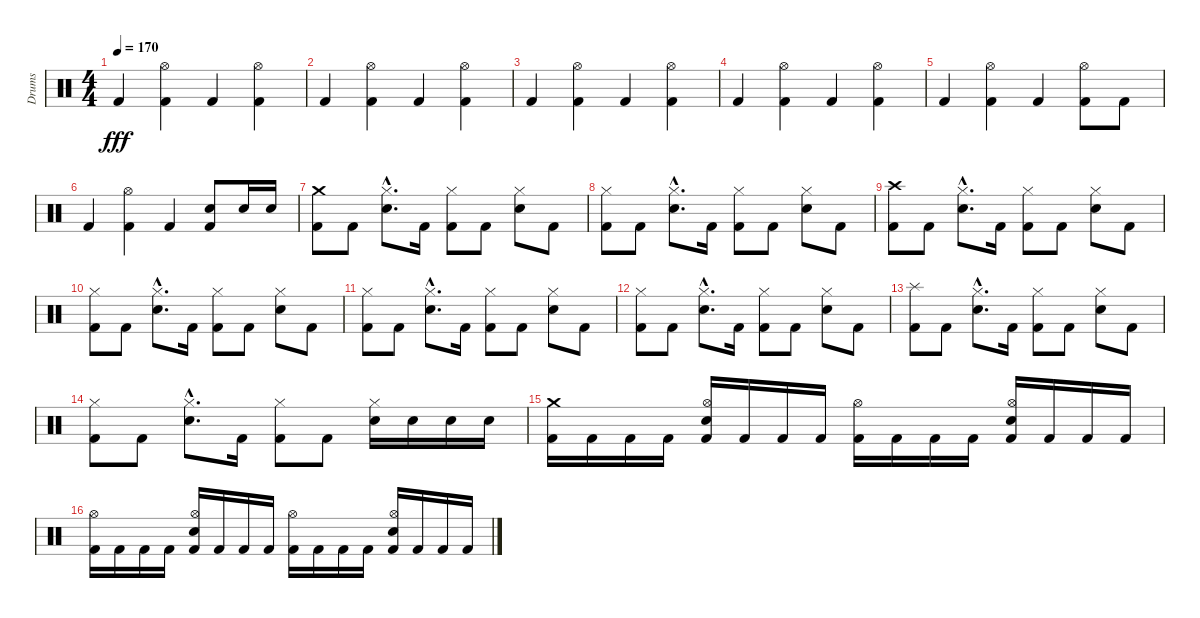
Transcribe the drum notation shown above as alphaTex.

\track ("Drums" "Drums") {instrument percussion}
\staff {score}
\articulation defaults
\ts (4 4)
\tempo 170
\clef neutral
\ks c "Kick (hit) 2".4{dy fff}
("Hi-Hat (open)" "Kick (hit) 2").4 "Kick (hit) 2".4 ("Hi-Hat (open)" "Kick (hit) 2").4 |
"Kick (hit) 2".4 ("Hi-Hat (open)" "Kick (hit) 2").4 "Kick (hit) 2".4 ("Hi-Hat (open)" "Kick (hit) 2").4 |
"Kick (hit) 2".4 ("Hi-Hat (open)" "Kick (hit) 2").4 "Kick (hit) 2".4 ("Hi-Hat (open)" "Kick (hit) 2").4 |
"Kick (hit) 2".4 ("Hi-Hat (open)" "Kick (hit) 2").4 "Kick (hit) 2".4 ("Hi-Hat (open)" "Kick (hit) 2").4 |
"Kick (hit) 2".4 ("Hi-Hat (open)" "Kick (hit) 2").4 "Kick (hit) 2".4 ("Hi-Hat (open)" "Kick (hit) 2").8 "Kick (hit) 2".8 |
"Kick (hit) 2".4 ("Hi-Hat (open)" "Kick (hit) 2").4 "Kick (hit) 2".4 ("Snare (hit) 2" "Kick (hit) 2").8 "Snare (hit) 2".16 "Snare (hit) 2".16 |
("Crash medium (hit)" "Kick (hit) 2").8 "Kick (hit) 2".8 ("Hi-Hat (closed)"{hac} "Snare (hit) 2"{hac}).8{d} "Kick (hit) 2".16 ("Hi-Hat (closed)" "Kick (hit) 2").8 "Kick (hit) 2".8 ("Hi-Hat (closed)" "Snare (hit) 2").8 "Kick (hit) 2".8 |
("Hi-Hat (closed)" "Kick (hit) 2").8 "Kick (hit) 2".8 ("Hi-Hat (closed)"{hac} "Snare (hit) 2"{hac}).8{d} "Kick (hit) 2".16 ("Hi-Hat (closed)" "Kick (hit) 2").8 "Kick (hit) 2".8 ("Hi-Hat (closed)" "Snare (hit) 2").8 "Kick (hit) 2".8 |
("Crash high (hit)" "Kick (hit) 2").8 "Kick (hit) 2".8 ("Hi-Hat (closed)"{hac} "Snare (hit) 2"{hac}).8{d} "Kick (hit) 2".16 ("Hi-Hat (closed)" "Kick (hit) 2").8 "Kick (hit) 2".8 ("Hi-Hat (closed)" "Snare (hit) 2").8 "Kick (hit) 2".8 |
("Hi-Hat (closed)" "Kick (hit) 2").8 "Kick (hit) 2".8 ("Hi-Hat (closed)"{hac} "Snare (hit) 2"{hac}).8{d} "Kick (hit) 2".16 ("Hi-Hat (closed)" "Kick (hit) 2").8 "Kick (hit) 2".8 ("Hi-Hat (closed)" "Snare (hit) 2").8 "Kick (hit) 2".8 |
("Hi-Hat (closed)" "Kick (hit) 2").8 "Kick (hit) 2".8 ("Hi-Hat (closed)"{hac} "Snare (hit) 2"{hac}).8{d} "Kick (hit) 2".16 ("Hi-Hat (closed)" "Kick (hit) 2").8 "Kick (hit) 2".8 ("Hi-Hat (closed)" "Snare (hit) 2").8 "Kick (hit) 2".8 |
("Hi-Hat (closed)" "Kick (hit) 2").8 "Kick (hit) 2".8 ("Hi-Hat (closed)"{hac} "Snare (hit) 2"{hac}).8{d} "Kick (hit) 2".16 ("Hi-Hat (closed)" "Kick (hit) 2").8 "Kick (hit) 2".8 ("Hi-Hat (closed)" "Snare (hit) 2").8 "Kick (hit) 2".8 |
("Splash (hit)" "Kick (hit) 2").8 "Kick (hit) 2".8 ("Hi-Hat (closed)"{hac} "Snare (hit) 2"{hac}).8{d} "Kick (hit) 2".16 ("Hi-Hat (closed)" "Kick (hit) 2").8 "Kick (hit) 2".8 ("Hi-Hat (closed)" "Snare (hit) 2").8 "Kick (hit) 2".8 |
("Hi-Hat (closed)" "Kick (hit) 2").8 "Kick (hit) 2".8 ("Hi-Hat (closed)"{hac} "Snare (hit) 2"{hac}).8{d} "Kick (hit) 2".16 ("Hi-Hat (closed)" "Kick (hit) 2").8 "Kick (hit) 2".8 ("Hi-Hat (closed)" "Snare (hit) 2").16 "Snare (hit) 2".16 "Snare (hit) 2".16 "Snare (hit) 2".16 |
("Crash medium (hit)" "Kick (hit) 2").16 "Kick (hit) 2".16 "Kick (hit) 2".16 "Kick (hit) 2".16 ("Hi-Hat (open)" "Snare (hit) 2" "Kick (hit) 2").16 "Kick (hit) 2".16 "Kick (hit) 2".16 "Kick (hit) 2".16 ("Hi-Hat (open)" "Kick (hit) 2").16 "Kick (hit) 2".16 "Kick (hit) 2".16 "Kick (hit) 2".16 ("Hi-Hat (open)" "Snare (hit) 2" "Kick (hit) 2").16 "Kick (hit) 2".16 "Kick (hit) 2".16 "Kick (hit) 2".16 |
("Hi-Hat (open)" "Kick (hit) 2").16 "Kick (hit) 2".16 "Kick (hit) 2".16 "Kick (hit) 2".16 ("Hi-Hat (open)" "Snare (hit) 2" "Kick (hit) 2").16 "Kick (hit) 2".16 "Kick (hit) 2".16 "Kick (hit) 2".16 ("Hi-Hat (open)" "Kick (hit) 2").16 "Kick (hit) 2".16 "Kick (hit) 2".16 "Kick (hit) 2".16 ("Hi-Hat (open)" "Snare (hit) 2" "Kick (hit) 2").16 "Kick (hit) 2".16 "Kick (hit) 2".16 "Kick (hit) 2".16
